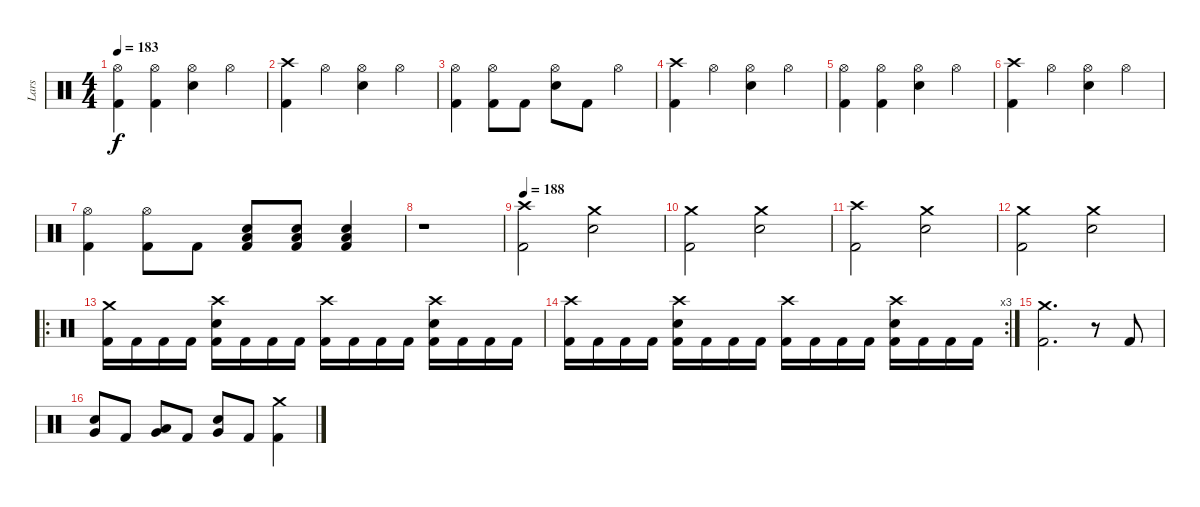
\track ("Lars" "Lars") {instrument percussion}
\staff {score}
\articulation defaults
\ts (4 4)
\tempo 183
\clef neutral
\ks c
("Hi-Hat (open)" "Kick (hit) 2").4{dy f} ("Hi-Hat (open)" "Kick (hit) 2").4 ("Hi-Hat (open)" "Snare (hit) 2").4 "Hi-Hat (open)".4 |
("Crash high (hit)" "Kick (hit) 2").4 "Hi-Hat (open)".4 ("Hi-Hat (open)" "Snare (hit) 2").4 "Hi-Hat (open)".4 |
("Hi-Hat (open)" "Kick (hit) 2").4 ("Hi-Hat (open)" "Kick (hit) 2").8 "Kick (hit) 2".8 ("Hi-Hat (open)" "Snare (hit) 2").8 "Kick (hit) 2".8 "Hi-Hat (open)".4 |
("Crash high (hit)" "Kick (hit) 2").4 "Hi-Hat (open)".4 ("Hi-Hat (open)" "Snare (hit) 2").4 "Hi-Hat (open)".4 |
("Hi-Hat (open)" "Kick (hit) 2").4 ("Hi-Hat (open)" "Kick (hit) 2").4 ("Hi-Hat (open)" "Snare (hit) 2").4 "Hi-Hat (open)".4 |
("Crash high (hit)" "Kick (hit) 2").4 "Hi-Hat (open)".4 ("Hi-Hat (open)" "Snare (hit) 2").4 "Hi-Hat (open)".4 |
("Hi-Hat (open)" "Kick (hit) 2").4 ("Hi-Hat (open)" "Kick (hit) 2").8 "Kick (hit) 2".8 ("Snare (hit) 2" "Low Floor Tom (hit)" "Kick (hit) 2").8 ("Snare (hit) 2" "Low Floor Tom (hit)" "Kick (hit) 2").8 ("Snare (hit) 2" "Low Floor Tom (hit)" "Kick (hit) 2").4 |
r.1 |
\tempo 188
("Crash high (hit)" "Kick (hit) 2").2 ("Crash medium (hit)" "Snare (hit) 2").2 |
("Crash medium (hit)" "Kick (hit) 2").2 ("Crash medium (hit)" "Snare (hit) 2").2 |
("Crash high (hit)" "Kick (hit) 2").2 ("Crash medium (hit)" "Snare (hit) 2").2 |
("Crash medium (hit)" "Kick (hit) 2").2 ("Crash medium (hit)" "Snare (hit) 2").2 |
\ro
("Crash medium (hit)" "Kick (hit) 2").16 "Kick (hit) 2".16 "Kick (hit) 2".16 "Kick (hit) 2".16 ("Crash high (hit)" "Snare (hit) 2" "Kick (hit) 2").16 "Kick (hit) 2".16 "Kick (hit) 2".16 "Kick (hit) 2".16 ("Crash high (hit)" "Kick (hit) 2").16 "Kick (hit) 2".16 "Kick (hit) 2".16 "Kick (hit) 2".16 ("Crash high (hit)" "Snare (hit) 2" "Kick (hit) 2").16 "Kick (hit) 2".16 "Kick (hit) 2".16 "Kick (hit) 2".16 |
\rc 3
("Crash high (hit)" "Kick (hit) 2").16 "Kick (hit) 2".16 "Kick (hit) 2".16 "Kick (hit) 2".16 ("Crash high (hit)" "Snare (hit) 2" "Kick (hit) 2").16 "Kick (hit) 2".16 "Kick (hit) 2".16 "Kick (hit) 2".16 ("Crash high (hit)" "Kick (hit) 2").16 "Kick (hit) 2".16 "Kick (hit) 2".16 "Kick (hit) 2".16 ("Crash high (hit)" "Snare (hit) 2" "Kick (hit) 2").16 "Kick (hit) 2".16 "Kick (hit) 2".16 "Kick (hit) 2".16 |
("Crash medium (hit)" "Kick (hit) 2").2{d} r.8 "Kick (hit) 2".8 |
("Snare (hit) 2" "Very Low Tom (hit)").8 "Kick (hit) 2".8 ("Low Tom (hit)" "Very Low Tom (hit)").8 "Kick (hit) 2".8 ("Snare (hit) 2" "Very Low Tom (hit)").8 "Kick (hit) 2".8 ("Crash medium (hit)" "Kick (hit) 2").4
